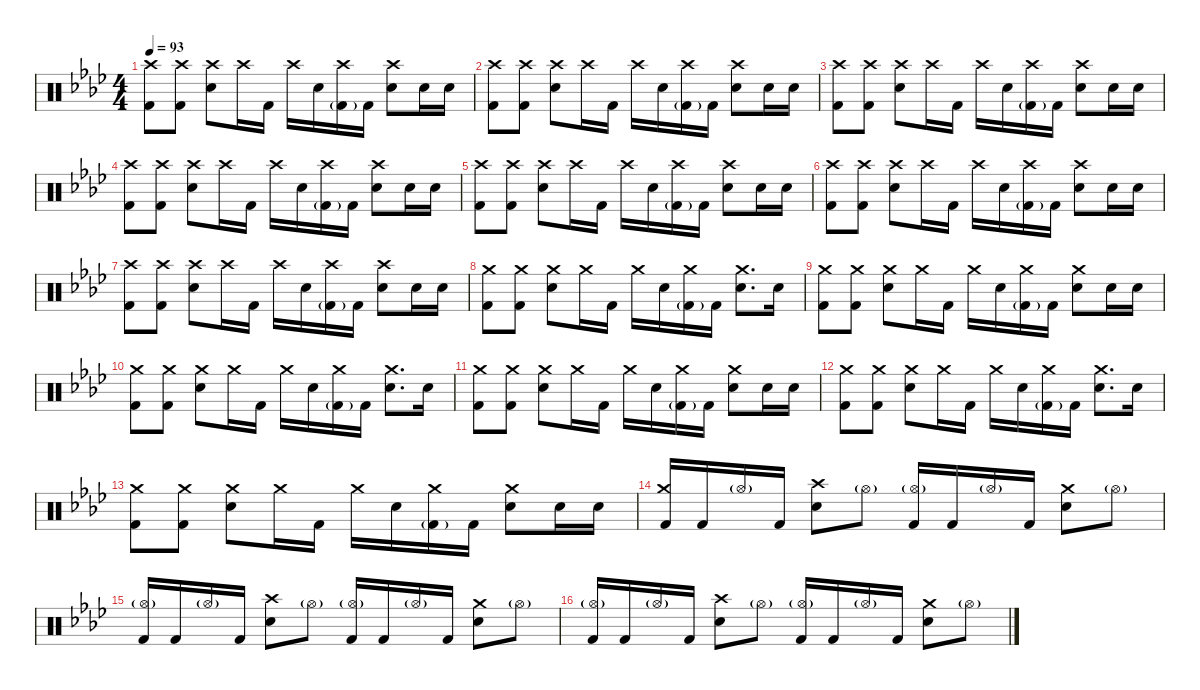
\defaultSystemsLayout 4
\hideDynamics
\bracketExtendMode nobrackets
\singleTrackTrackNamePolicy hidden
\multiTrackTrackNamePolicy hidden
\firstSystemTrackNameMode fullname
\firstSystemTrackNameOrientation horizontal
\otherSystemsTrackNameOrientation horizontal
\track ("Drums" "drm.") {instrument percussion}
\staff {score}
\articulation defaults
\ts (4 4)
\tempo 93
\clef neutral
\ks ab
("Crash high (hit)"{acc forcenatural} "Kick (hit) 2"{acc forcenatural}).8{dy f beam Down} ("Crash high (hit)"{acc forcenatural} "Kick (hit) 2"{acc forcenatural}).8{beam Down} ("Crash high (hit)"{acc forcenatural} "Snare (hit) 2"{acc forcenatural}).8{beam Down} "Crash high (hit)"{acc forcenatural}.16{beam Down} "Kick (hit) 2"{acc forcenatural}.16{beam Down} "Crash high (hit)"{acc forcenatural}.16{beam Down} "Snare (hit) 2"{acc forcenatural}.16{beam Down} ("Crash high (hit)"{acc forcenatural} "Kick (hit) 2"{g acc forcenatural}).16{beam Down} "Kick (hit) 2"{acc forcenatural}.16{beam Down} ("Crash high (hit)"{acc forcenatural} "Snare (hit) 2"{acc forcenatural}).8{beam Down} "Snare (hit) 2"{acc forcenatural}.16{beam Down} "Snare (hit) 2"{acc forcenatural}.16{beam Down} |
("Crash high (hit)"{acc forcenatural} "Kick (hit) 2"{acc forcenatural}).8{beam Down} ("Crash high (hit)"{acc forcenatural} "Kick (hit) 2"{acc forcenatural}).8{beam Down} ("Crash high (hit)"{acc forcenatural} "Snare (hit) 2"{acc forcenatural}).8{beam Down} "Crash high (hit)"{acc forcenatural}.16{beam Down} "Kick (hit) 2"{acc forcenatural}.16{beam Down} "Crash high (hit)"{acc forcenatural}.16{beam Down} "Snare (hit) 2"{acc forcenatural}.16{beam Down} ("Crash high (hit)"{acc forcenatural} "Kick (hit) 2"{g acc forcenatural}).16{beam Down} "Kick (hit) 2"{acc forcenatural}.16{beam Down} ("Crash high (hit)"{acc forcenatural} "Snare (hit) 2"{acc forcenatural}).8{beam Down} "Snare (hit) 2"{acc forcenatural}.16{beam Down} "Snare (hit) 2"{acc forcenatural}.16{beam Down} |
("Crash high (hit)"{acc forcenatural} "Kick (hit) 2"{acc forcenatural}).8{beam Down} ("Crash high (hit)"{acc forcenatural} "Kick (hit) 2"{acc forcenatural}).8{beam Down} ("Crash high (hit)"{acc forcenatural} "Snare (hit) 2"{acc forcenatural}).8{beam Down} "Crash high (hit)"{acc forcenatural}.16{beam Down} "Kick (hit) 2"{acc forcenatural}.16{beam Down} "Crash high (hit)"{acc forcenatural}.16{beam Down} "Snare (hit) 2"{acc forcenatural}.16{beam Down} ("Crash high (hit)"{acc forcenatural} "Kick (hit) 2"{g acc forcenatural}).16{beam Down} "Kick (hit) 2"{acc forcenatural}.16{beam Down} ("Crash high (hit)"{acc forcenatural} "Snare (hit) 2"{acc forcenatural}).8{beam Down} "Snare (hit) 2"{acc forcenatural}.16{beam Down} "Snare (hit) 2"{acc forcenatural}.16{beam Down} |
("Crash high (hit)"{acc forcenatural} "Kick (hit) 2"{acc forcenatural}).8{beam Down} ("Crash high (hit)"{acc forcenatural} "Kick (hit) 2"{acc forcenatural}).8{beam Down} ("Crash high (hit)"{acc forcenatural} "Snare (hit) 2"{acc forcenatural}).8{beam Down} "Crash high (hit)"{acc forcenatural}.16{beam Down} "Kick (hit) 2"{acc forcenatural}.16{beam Down} "Crash high (hit)"{acc forcenatural}.16{beam Down} "Snare (hit) 2"{acc forcenatural}.16{beam Down} ("Crash high (hit)"{acc forcenatural} "Kick (hit) 2"{g acc forcenatural}).16{beam Down} "Kick (hit) 2"{acc forcenatural}.16{beam Down} ("Crash high (hit)"{acc forcenatural} "Snare (hit) 2"{acc forcenatural}).8{beam Down} "Snare (hit) 2"{acc forcenatural}.16{beam Down} "Snare (hit) 2"{acc forcenatural}.16{beam Down} |
("Crash high (hit)"{acc forcenatural} "Kick (hit) 2"{acc forcenatural}).8{beam Down} ("Crash high (hit)"{acc forcenatural} "Kick (hit) 2"{acc forcenatural}).8{beam Down} ("Crash high (hit)"{acc forcenatural} "Snare (hit) 2"{acc forcenatural}).8{beam Down} "Crash high (hit)"{acc forcenatural}.16{beam Down} "Kick (hit) 2"{acc forcenatural}.16{beam Down} "Crash high (hit)"{acc forcenatural}.16{beam Down} "Snare (hit) 2"{acc forcenatural}.16{beam Down} ("Crash high (hit)"{acc forcenatural} "Kick (hit) 2"{g acc forcenatural}).16{beam Down} "Kick (hit) 2"{acc forcenatural}.16{beam Down} ("Crash high (hit)"{acc forcenatural} "Snare (hit) 2"{acc forcenatural}).8{beam Down} "Snare (hit) 2"{acc forcenatural}.16{beam Down} "Snare (hit) 2"{acc forcenatural}.16{beam Down} |
("Crash high (hit)"{acc forcenatural} "Kick (hit) 2"{acc forcenatural}).8{beam Down} ("Crash high (hit)"{acc forcenatural} "Kick (hit) 2"{acc forcenatural}).8{beam Down} ("Crash high (hit)"{acc forcenatural} "Snare (hit) 2"{acc forcenatural}).8{beam Down} "Crash high (hit)"{acc forcenatural}.16{beam Down} "Kick (hit) 2"{acc forcenatural}.16{beam Down} "Crash high (hit)"{acc forcenatural}.16{beam Down} "Snare (hit) 2"{acc forcenatural}.16{beam Down} ("Crash high (hit)"{acc forcenatural} "Kick (hit) 2"{g acc forcenatural}).16{beam Down} "Kick (hit) 2"{acc forcenatural}.16{beam Down} ("Crash high (hit)"{acc forcenatural} "Snare (hit) 2"{acc forcenatural}).8{beam Down} "Snare (hit) 2"{acc forcenatural}.16{beam Down} "Snare (hit) 2"{acc forcenatural}.16{beam Down} |
("Crash high (hit)"{acc forcenatural} "Kick (hit) 2"{acc forcenatural}).8{beam Down} ("Crash high (hit)"{acc forcenatural} "Kick (hit) 2"{acc forcenatural}).8{beam Down} ("Crash high (hit)"{acc forcenatural} "Snare (hit) 2"{acc forcenatural}).8{beam Down} "Crash high (hit)"{acc forcenatural}.16{beam Down} "Kick (hit) 2"{acc forcenatural}.16{beam Down} "Crash high (hit)"{acc forcenatural}.16{beam Down} "Snare (hit) 2"{acc forcenatural}.16{beam Down} ("Crash high (hit)"{acc forcenatural} "Kick (hit) 2"{g acc forcenatural}).16{beam Down} "Kick (hit) 2"{acc forcenatural}.16{beam Down} ("Crash high (hit)"{acc forcenatural} "Snare (hit) 2"{acc forcenatural}).8{beam Down} "Snare (hit) 2"{acc forcenatural}.16{beam Down} "Snare (hit) 2"{acc forcenatural}.16{beam Down} |
("Crash medium (hit)"{acc forcenatural} "Kick (hit) 2"{acc forcenatural}).8{beam Down} ("Crash medium (hit)"{acc forcenatural} "Kick (hit) 2"{acc forcenatural}).8{beam Down} ("Crash medium (hit)"{acc forcenatural} "Snare (hit) 2"{acc forcenatural}).8{beam Down} "Crash medium (hit)"{acc forcenatural}.16{beam Down} "Kick (hit) 2"{acc forcenatural}.16{beam Down} "Crash medium (hit)"{acc forcenatural}.16{beam Down} "Snare (hit) 2"{acc forcenatural}.16{beam Down} ("Crash medium (hit)"{acc forcenatural} "Kick (hit) 2"{g acc forcenatural}).16{beam Down} "Kick (hit) 2"{acc forcenatural}.16{beam Down} ("Crash medium (hit)"{acc forcenatural} "Snare (hit) 2"{acc forcenatural}).8{d beam Down} "Snare (hit) 2"{acc forcenatural}.16{beam Down} |
("Crash medium (hit)"{acc forcenatural} "Kick (hit) 2"{acc forcenatural}).8{beam Down} ("Crash medium (hit)"{acc forcenatural} "Kick (hit) 2"{acc forcenatural}).8{beam Down} ("Crash medium (hit)"{acc forcenatural} "Snare (hit) 2"{acc forcenatural}).8{beam Down} "Crash medium (hit)"{acc forcenatural}.16{beam Down} "Kick (hit) 2"{acc forcenatural}.16{beam Down} "Crash medium (hit)"{acc forcenatural}.16{beam Down} "Snare (hit) 2"{acc forcenatural}.16{beam Down} ("Crash medium (hit)"{acc forcenatural} "Kick (hit) 2"{g acc forcenatural}).16{beam Down} "Kick (hit) 2"{acc forcenatural}.16{beam Down} ("Crash medium (hit)"{acc forcenatural} "Snare (hit) 2"{acc forcenatural}).8{beam Down} "Snare (hit) 2"{acc forcenatural}.16{beam Down} "Snare (hit) 2"{acc forcenatural}.16{beam Down} |
("Crash medium (hit)"{acc forcenatural} "Kick (hit) 2"{acc forcenatural}).8{beam Down} ("Crash medium (hit)"{acc forcenatural} "Kick (hit) 2"{acc forcenatural}).8{beam Down} ("Crash medium (hit)"{acc forcenatural} "Snare (hit) 2"{acc forcenatural}).8{beam Down} "Crash medium (hit)"{acc forcenatural}.16{beam Down} "Kick (hit) 2"{acc forcenatural}.16{beam Down} "Crash medium (hit)"{acc forcenatural}.16{beam Down} "Snare (hit) 2"{acc forcenatural}.16{beam Down} ("Crash medium (hit)"{acc forcenatural} "Kick (hit) 2"{g acc forcenatural}).16{beam Down} "Kick (hit) 2"{acc forcenatural}.16{beam Down} ("Crash medium (hit)"{acc forcenatural} "Snare (hit) 2"{acc forcenatural}).8{d beam Down} "Snare (hit) 2"{acc forcenatural}.16{beam Down} |
("Crash medium (hit)"{acc forcenatural} "Kick (hit) 2"{acc forcenatural}).8{beam Down} ("Crash medium (hit)"{acc forcenatural} "Kick (hit) 2"{acc forcenatural}).8{beam Down} ("Crash medium (hit)"{acc forcenatural} "Snare (hit) 2"{acc forcenatural}).8{beam Down} "Crash medium (hit)"{acc forcenatural}.16{beam Down} "Kick (hit) 2"{acc forcenatural}.16{beam Down} "Crash medium (hit)"{acc forcenatural}.16{beam Down} "Snare (hit) 2"{acc forcenatural}.16{beam Down} ("Crash medium (hit)"{acc forcenatural} "Kick (hit) 2"{g acc forcenatural}).16{beam Down} "Kick (hit) 2"{acc forcenatural}.16{beam Down} ("Crash medium (hit)"{acc forcenatural} "Snare (hit) 2"{acc forcenatural}).8{beam Down} "Snare (hit) 2"{acc forcenatural}.16{beam Down} "Snare (hit) 2"{acc forcenatural}.16{beam Down} |
("Crash medium (hit)"{acc forcenatural} "Kick (hit) 2"{acc forcenatural}).8{beam Down} ("Crash medium (hit)"{acc forcenatural} "Kick (hit) 2"{acc forcenatural}).8{beam Down} ("Crash medium (hit)"{acc forcenatural} "Snare (hit) 2"{acc forcenatural}).8{beam Down} "Crash medium (hit)"{acc forcenatural}.16{beam Down} "Kick (hit) 2"{acc forcenatural}.16{beam Down} "Crash medium (hit)"{acc forcenatural}.16{beam Down} "Snare (hit) 2"{acc forcenatural}.16{beam Down} ("Crash medium (hit)"{acc forcenatural} "Kick (hit) 2"{g acc forcenatural}).16{beam Down} "Kick (hit) 2"{acc forcenatural}.16{beam Down} ("Crash medium (hit)"{acc forcenatural} "Snare (hit) 2"{acc forcenatural}).8{d beam Down} "Snare (hit) 2"{acc forcenatural}.16{beam Down} |
("Crash medium (hit)"{acc forcenatural} "Kick (hit) 2"{acc forcenatural}).8{beam Down} ("Crash medium (hit)"{acc forcenatural} "Kick (hit) 2"{acc forcenatural}).8{beam Down} ("Crash medium (hit)"{acc forcenatural} "Snare (hit) 2"{acc forcenatural}).8{beam Down} "Crash medium (hit)"{acc forcenatural}.16{beam Down} "Kick (hit) 2"{acc forcenatural}.16{beam Down} "Crash medium (hit)"{acc forcenatural}.16{beam Down} "Snare (hit) 2"{acc forcenatural}.16{beam Down} ("Crash medium (hit)"{acc forcenatural} "Kick (hit) 2"{g acc forcenatural}).16{beam Down} "Kick (hit) 2"{acc forcenatural}.16{beam Down} ("Crash medium (hit)"{acc forcenatural} "Snare (hit) 2"{acc forcenatural}).8{beam Down} "Snare (hit) 2"{acc forcenatural}.16{beam Down} "Snare (hit) 2"{acc forcenatural}.16{beam Down} |
("Crash medium (hit)"{acc forcenatural} "Kick (hit) 2"{acc forcenatural}).16{beam Up} "Kick (hit) 2"{acc forcenatural}.16{beam Up} "Hi-Hat (open)"{g acc forcenatural}.16{dy mf beam Up} "Kick (hit) 2"{acc forcenatural}.16{dy f beam Up} ("Crash high (hit)"{acc forcenatural} "Snare (hit) 2"{acc forcenatural}).8{beam Down} "Hi-Hat (open)"{g acc forcenatural}.8{dy mf beam Down} ("Hi-Hat (open)"{g acc forcenatural} "Kick (hit) 2"{acc forcenatural}).16{dy f beam Up} "Kick (hit) 2"{acc forcenatural}.16{beam Up} "Hi-Hat (open)"{g acc forcenatural}.16{dy mf beam Up} "Kick (hit) 2"{acc forcenatural}.16{dy f beam Up} ("Crash medium (hit)"{acc forcenatural} "Snare (hit) 2"{acc forcenatural}).8{beam Down} "Hi-Hat (open)"{g acc forcenatural}.8{dy mf beam Down} |
("Hi-Hat (open)"{g acc forcenatural} "Kick (hit) 2"{acc forcenatural}).16{dy f beam Up} "Kick (hit) 2"{acc forcenatural}.16{beam Up} "Hi-Hat (open)"{g acc forcenatural}.16{dy mf beam Up} "Kick (hit) 2"{acc forcenatural}.16{dy f beam Up} ("Crash high (hit)"{acc forcenatural} "Snare (hit) 2"{acc forcenatural}).8{beam Down} "Hi-Hat (open)"{g acc forcenatural}.8{dy mf beam Down} ("Hi-Hat (open)"{g acc forcenatural} "Kick (hit) 2"{acc forcenatural}).16{dy f beam Up} "Kick (hit) 2"{acc forcenatural}.16{beam Up} "Hi-Hat (open)"{g acc forcenatural}.16{dy mf beam Up} "Kick (hit) 2"{acc forcenatural}.16{dy f beam Up} ("Crash medium (hit)"{acc forcenatural} "Snare (hit) 2"{acc forcenatural}).8{beam Down} "Hi-Hat (open)"{g acc forcenatural}.8{dy mf beam Down} |
("Hi-Hat (open)"{g acc forcenatural} "Kick (hit) 2"{acc forcenatural}).16{dy f beam Up} "Kick (hit) 2"{acc forcenatural}.16{beam Up} "Hi-Hat (open)"{g acc forcenatural}.16{dy mf beam Up} "Kick (hit) 2"{acc forcenatural}.16{dy f beam Up} ("Crash high (hit)"{acc forcenatural} "Snare (hit) 2"{acc forcenatural}).8{beam Down} "Hi-Hat (open)"{g acc forcenatural}.8{dy mf beam Down} ("Hi-Hat (open)"{g acc forcenatural} "Kick (hit) 2"{acc forcenatural}).16{dy f beam Up} "Kick (hit) 2"{acc forcenatural}.16{beam Up} "Hi-Hat (open)"{g acc forcenatural}.16{dy mf beam Up} "Kick (hit) 2"{acc forcenatural}.16{dy f beam Up} ("Crash medium (hit)"{acc forcenatural} "Snare (hit) 2"{acc forcenatural}).8{beam Down} "Hi-Hat (open)"{g acc forcenatural}.8{dy mf beam Down}
